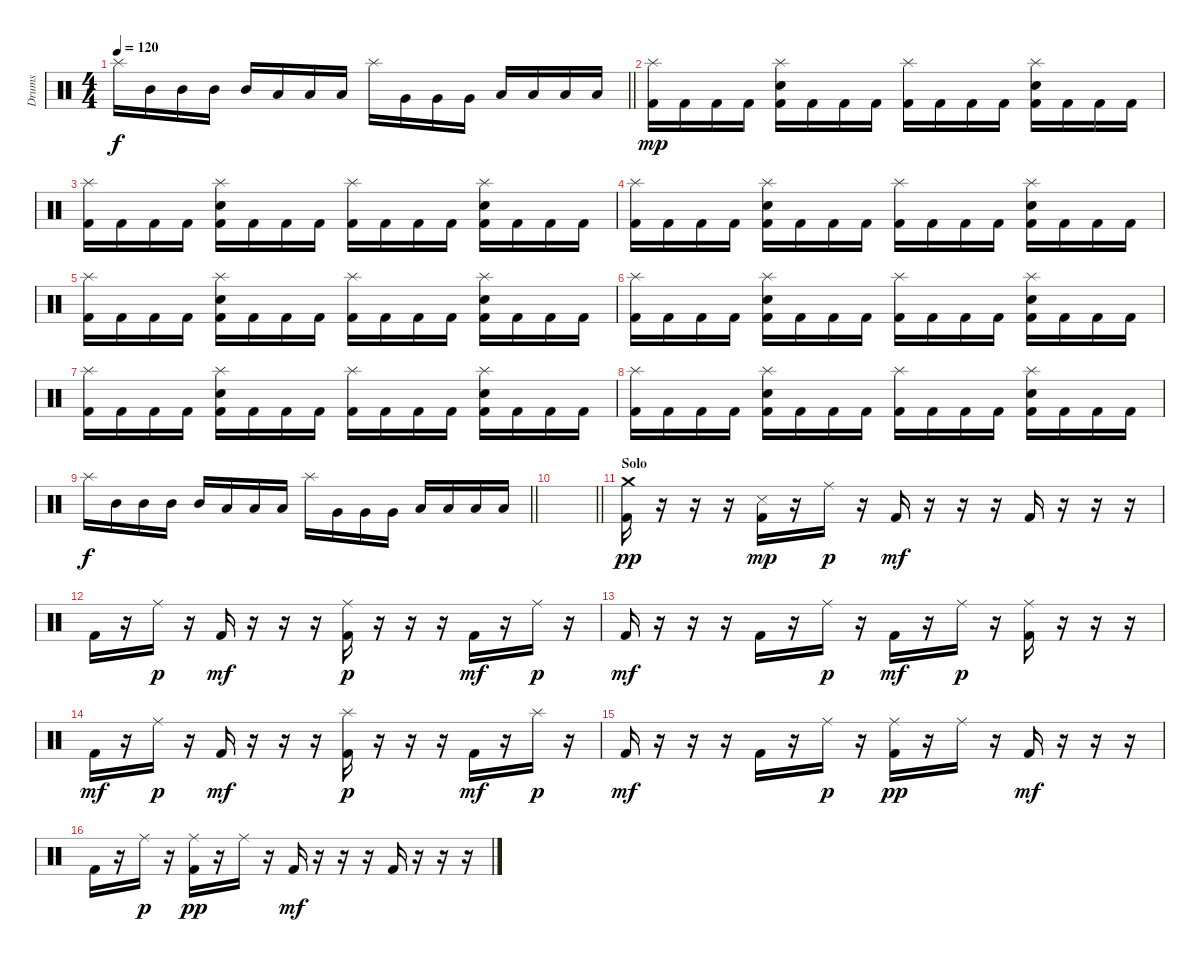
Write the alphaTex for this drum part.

\track ("Drums" "Drums") {instrument percussion}
\staff {score}
\articulation defaults
\ts (4 4)
\tempo 120
\clef neutral
\barLineRight lightlight
\ks c "Splash (hit)".16{dy f} "Mid Tom (hit)".16 "Mid Tom (hit)".16 "Mid Tom (hit)".16 "Mid Tom (hit)".16 "Low Tom (hit)".16 "Low Tom (hit)".16 "Low Tom (hit)".16 "Splash (hit)".16 "Very Low Tom (hit)".16 "Very Low Tom (hit)".16 "Very Low Tom (hit)".16 "Low Floor Tom (hit)".16 "Low Floor Tom (hit)".16 "Low Floor Tom (hit)".16 "Low Floor Tom (hit)".16
|
("Kick (hit) 2" "Splash (hit)").16{dy mp} "Kick (hit) 2".16 "Kick (hit) 2".16 "Kick (hit) 2".16 ("Kick (hit) 2" "Splash (hit)" "Snare (hit) 2").16 "Kick (hit) 2".16 "Kick (hit) 2".16 "Kick (hit) 2".16 ("Kick (hit) 2" "Splash (hit)").16 "Kick (hit) 2".16 "Kick (hit) 2".16 "Kick (hit) 2".16 ("Kick (hit) 2" "Splash (hit)" "Snare (hit) 2").16 "Kick (hit) 2".16 "Kick (hit) 2".16 "Kick (hit) 2".16 |
("Kick (hit) 2" "Splash (hit)").16 "Kick (hit) 2".16 "Kick (hit) 2".16 "Kick (hit) 2".16 ("Kick (hit) 2" "Splash (hit)" "Snare (hit) 2").16 "Kick (hit) 2".16 "Kick (hit) 2".16 "Kick (hit) 2".16 ("Kick (hit) 2" "Splash (hit)").16 "Kick (hit) 2".16 "Kick (hit) 2".16 "Kick (hit) 2".16 ("Kick (hit) 2" "Splash (hit)" "Snare (hit) 2").16 "Kick (hit) 2".16 "Kick (hit) 2".16 "Kick (hit) 2".16 |
("Kick (hit) 2" "Splash (hit)").16 "Kick (hit) 2".16 "Kick (hit) 2".16 "Kick (hit) 2".16 ("Kick (hit) 2" "Splash (hit)" "Snare (hit) 2").16 "Kick (hit) 2".16 "Kick (hit) 2".16 "Kick (hit) 2".16 ("Kick (hit) 2" "Splash (hit)").16 "Kick (hit) 2".16 "Kick (hit) 2".16 "Kick (hit) 2".16 ("Kick (hit) 2" "Splash (hit)" "Snare (hit) 2").16 "Kick (hit) 2".16 "Kick (hit) 2".16 "Kick (hit) 2".16 |
("Kick (hit) 2" "Splash (hit)").16 "Kick (hit) 2".16 "Kick (hit) 2".16 "Kick (hit) 2".16 ("Kick (hit) 2" "Splash (hit)" "Snare (hit) 2").16 "Kick (hit) 2".16 "Kick (hit) 2".16 "Kick (hit) 2".16 ("Kick (hit) 2" "Splash (hit)").16 "Kick (hit) 2".16 "Kick (hit) 2".16 "Kick (hit) 2".16 ("Kick (hit) 2" "Splash (hit)" "Snare (hit) 2").16 "Kick (hit) 2".16 "Kick (hit) 2".16 "Kick (hit) 2".16 |
("Kick (hit) 2" "Splash (hit)").16 "Kick (hit) 2".16 "Kick (hit) 2".16 "Kick (hit) 2".16 ("Kick (hit) 2" "Splash (hit)" "Snare (hit) 2").16 "Kick (hit) 2".16 "Kick (hit) 2".16 "Kick (hit) 2".16 ("Kick (hit) 2" "Splash (hit)").16 "Kick (hit) 2".16 "Kick (hit) 2".16 "Kick (hit) 2".16 ("Kick (hit) 2" "Splash (hit)" "Snare (hit) 2").16 "Kick (hit) 2".16 "Kick (hit) 2".16 "Kick (hit) 2".16 |
("Kick (hit) 2" "Splash (hit)").16 "Kick (hit) 2".16 "Kick (hit) 2".16 "Kick (hit) 2".16 ("Kick (hit) 2" "Splash (hit)" "Snare (hit) 2").16 "Kick (hit) 2".16 "Kick (hit) 2".16 "Kick (hit) 2".16 ("Kick (hit) 2" "Splash (hit)").16 "Kick (hit) 2".16 "Kick (hit) 2".16 "Kick (hit) 2".16 ("Kick (hit) 2" "Splash (hit)" "Snare (hit) 2").16 "Kick (hit) 2".16 "Kick (hit) 2".16 "Kick (hit) 2".16 |
("Kick (hit) 2" "Splash (hit)").16 "Kick (hit) 2".16 "Kick (hit) 2".16 "Kick (hit) 2".16 ("Kick (hit) 2" "Splash (hit)" "Snare (hit) 2").16 "Kick (hit) 2".16 "Kick (hit) 2".16 "Kick (hit) 2".16 ("Kick (hit) 2" "Splash (hit)").16 "Kick (hit) 2".16 "Kick (hit) 2".16 "Kick (hit) 2".16 ("Kick (hit) 2" "Splash (hit)" "Snare (hit) 2").16 "Kick (hit) 2".16 "Kick (hit) 2".16 "Kick (hit) 2".16 |
\barLineRight lightlight "Splash (hit)".16{dy f} "Mid Tom (hit)".16 "Mid Tom (hit)".16 "Mid Tom (hit)".16 "Mid Tom (hit)".16 "Low Tom (hit)".16 "Low Tom (hit)".16 "Low Tom (hit)".16 "Splash (hit)".16 "Very Low Tom (hit)".16 "Very Low Tom (hit)".16 "Very Low Tom (hit)".16 "Low Floor Tom (hit)".16 "Low Floor Tom (hit)".16 "Low Floor Tom (hit)".16 "Low Floor Tom (hit)".16
|
\barLineRight lightlight
|
\section ("" "Solo")
("Kick (hit) 2" "Crash medium (hit)").16{dy pp} r.16 r.16 r.16 ("Kick (hit) 2" "Snare (side stick) 3").16{dy mp} r.16 "Ride (middle)".16{dy p} r.16 "Kick (hit) 2".16{dy mf} r.16 r.16 r.16 "Kick (hit) 2".16 r.16 r.16 r.16 |
"Kick (hit) 2".16 r.16 "Ride (middle)".16{dy p} r.16 "Kick (hit) 2".16{dy mf} r.16 r.16 r.16 ("Kick (hit) 2" "Ride (middle)").16{dy p} r.16 r.16 r.16 "Kick (hit) 2".16{dy mf} r.16 "Ride (middle)".16{dy p} r.16 |
"Kick (hit) 2".16{dy mf} r.16 r.16 r.16 "Kick (hit) 2".16 r.16 "Ride (middle)".16{dy p} r.16 "Kick (hit) 2".16{dy mf} r.16 "Ride (middle)".16{dy p} r.16 ("Kick (hit) 2" "Ride (middle)").16 r.16 r.16 r.16 |
"Kick (hit) 2".16{dy mf} r.16 "Ride (middle)".16{dy p} r.16 "Kick (hit) 2".16{dy mf} r.16 r.16 r.16 ("Kick (hit) 2" "Splash (hit)").16{dy p} r.16 r.16 r.16 "Kick (hit) 2".16{dy mf} r.16 "Splash (hit)".16{dy p} r.16 |
"Kick (hit) 2".16{dy mf} r.16 r.16 r.16 "Kick (hit) 2".16 r.16 "Ride (middle)".16{dy p} r.16 ("Kick (hit) 2" "Ride (middle)").16{dy pp} r.16 "Ride (middle)".16 r.16 "Kick (hit) 2".16{dy mf} r.16 r.16 r.16 |
"Kick (hit) 2".16 r.16 "Ride (middle)".16{dy p} r.16 ("Kick (hit) 2" "Ride (middle)").16{dy pp} r.16 "Ride (middle)".16 r.16 "Kick (hit) 2".16{dy mf} r.16 r.16 r.16 "Kick (hit) 2".16 r.16 r.16 r.16
